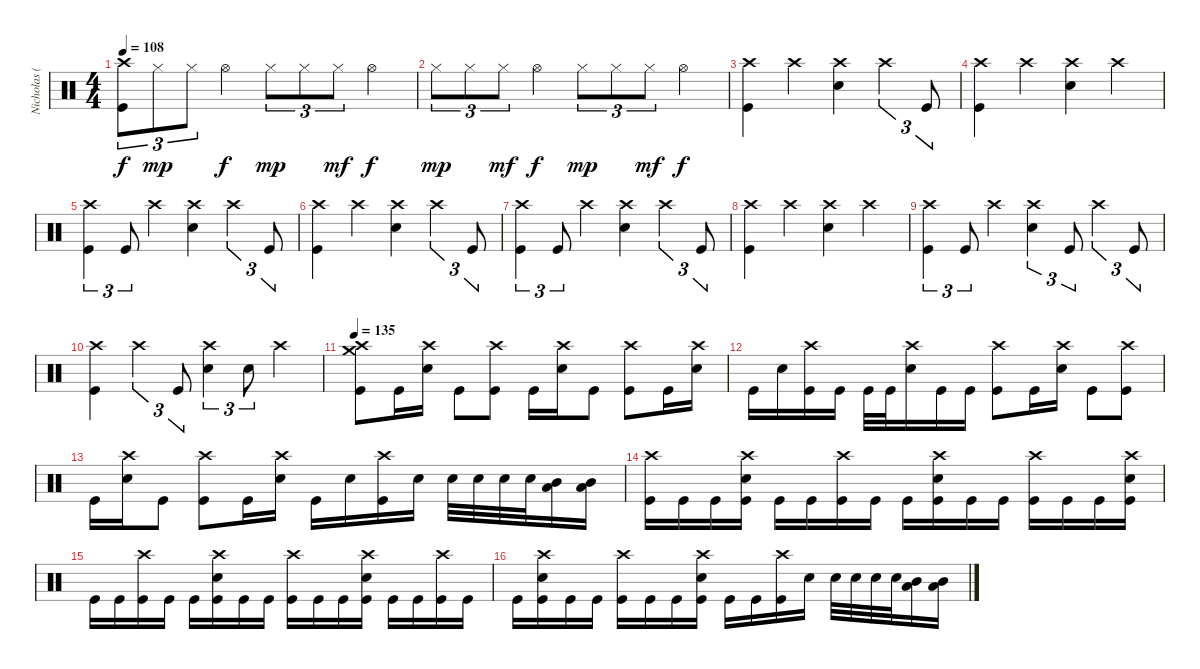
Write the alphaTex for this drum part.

\track ("Nicholas (Drums)" "Nicholas (") {instrument percussion}
\staff {score}
\articulation defaults
\ts (4 4)
\tempo 108
\clef neutral
\ks c
("Crash high (hit)" "Kick (hit)").8{tu (3 2) dy f} "Hi-Hat (closed)".8{tu (3 2) dy mp} "Hi-Hat (closed)".8{tu (3 2)} "Hi-Hat (open)".4{dy f} "Hi-Hat (closed)".8{tu (3 2) dy mp} "Hi-Hat (closed)".8{tu (3 2)} "Hi-Hat (closed)".8{tu (3 2) dy mf} "Hi-Hat (open)".4{dy f} |
"Hi-Hat (closed)".8{tu (3 2) dy mp} "Hi-Hat (closed)".8{tu (3 2)} "Hi-Hat (closed)".8{tu (3 2) dy mf} "Hi-Hat (open)".4{dy f} "Hi-Hat (closed)".8{tu (3 2) dy mp} "Hi-Hat (closed)".8{tu (3 2)} "Hi-Hat (closed)".8{tu (3 2) dy mf} "Hi-Hat (open)".4{dy f} |
("Crash high (hit)" "Kick (hit)").4 "Crash high (hit)".4 ("Crash high (hit)" "Electric Snare (hit)").4 "Crash high (hit)".4{tu (3 2)} "Kick (hit)".8{tu (3 2)} |
("Crash high (hit)" "Kick (hit)").4 "Crash high (hit)".4 ("Crash high (hit)" "Electric Snare (hit)").4 "Crash high (hit)".4 |
("Crash high (hit)" "Kick (hit)").4{tu (3 2)} "Kick (hit)".8{tu (3 2)} "Crash high (hit)".4 ("Crash high (hit)" "Electric Snare (hit)").4 "Crash high (hit)".4{tu (3 2)} "Kick (hit)".8{tu (3 2)} |
("Crash high (hit)" "Kick (hit)").4 "Crash high (hit)".4 ("Crash high (hit)" "Electric Snare (hit)").4 "Crash high (hit)".4{tu (3 2)} "Kick (hit)".8{tu (3 2)} |
("Crash high (hit)" "Kick (hit)").4{tu (3 2)} "Kick (hit)".8{tu (3 2)} "Crash high (hit)".4 ("Crash high (hit)" "Electric Snare (hit)").4 "Crash high (hit)".4{tu (3 2)} "Kick (hit)".8{tu (3 2)} |
("Crash high (hit)" "Kick (hit)").4 "Crash high (hit)".4 ("Crash high (hit)" "Electric Snare (hit)").4 "Crash high (hit)".4 |
("Crash high (hit)" "Kick (hit)").4{tu (3 2)} "Kick (hit)".8{tu (3 2)} "Crash high (hit)".4 ("Crash high (hit)" "Electric Snare (hit)").4{tu (3 2)} "Kick (hit)".8{tu (3 2)} "Crash high (hit)".4{tu (3 2)} "Kick (hit)".8{tu (3 2)} |
("Crash high (hit)" "Kick (hit)").4 "Crash high (hit)".4{tu (3 2)} "Kick (hit)".8{tu (3 2)} ("Crash high (hit)" "Electric Snare (hit)").4{tu (3 2)} "Electric Snare (hit)".8{tu (3 2)} "Crash high (hit)".4 |
\tempo 135
("Crash medium (hit)" "Crash high (hit)" "Kick (hit)").8 "Kick (hit)".16 ("Crash high (hit)" "Electric Snare (hit)").16 "Kick (hit)".8 ("Crash high (hit)" "Kick (hit)").8 "Kick (hit)".16 ("Crash high (hit)" "Electric Snare (hit)").16 "Kick (hit)".8 ("Crash high (hit)" "Kick (hit)").8 "Kick (hit)".16 ("Crash high (hit)" "Electric Snare (hit)").16 |
"Kick (hit)".16 "Electric Snare (hit)".16 ("Crash high (hit)" "Kick (hit)").16 "Kick (hit)".16 "Kick (hit)".32 "Kick (hit)".32 ("Crash high (hit)" "Electric Snare (hit)").16 "Kick (hit)".16 "Kick (hit)".16 ("Crash high (hit)" "Kick (hit)").8 "Kick (hit)".16 ("Crash high (hit)" "Electric Snare (hit)").16 "Kick (hit)".8 ("Crash high (hit)" "Kick (hit)").8 |
"Kick (hit)".16 ("Crash high (hit)" "Electric Snare (hit)").16 "Kick (hit)".8 ("Crash high (hit)" "Kick (hit)").8 "Kick (hit)".16 ("Crash high (hit)" "Electric Snare (hit)").16 "Kick (hit)".16 "Electric Snare (hit)".16 ("Crash high (hit)" "Kick (hit)").16 "Electric Snare (hit)".16 "Electric Snare (hit)".32 "Electric Snare (hit)".32 "Electric Snare (hit)".32 "Electric Snare (hit)".32 ("Mid Tom (hit)" "Low Tom (hit)").16 ("Mid Tom (hit)" "Low Tom (hit)").16 |
("Crash high (hit)" "Kick (hit)").16 "Kick (hit)".16 "Kick (hit)".16 ("Crash high (hit)" "Electric Snare (hit)" "Kick (hit)").16 "Kick (hit)".16 "Kick (hit)".16 ("Crash high (hit)" "Kick (hit)").16 "Kick (hit)".16 "Kick (hit)".16 ("Crash high (hit)" "Electric Snare (hit)" "Kick (hit)").16 "Kick (hit)".16 "Kick (hit)".16 ("Crash high (hit)" "Kick (hit)").16 "Kick (hit)".16 "Kick (hit)".16 ("Crash high (hit)" "Electric Snare (hit)" "Kick (hit)").16 |
"Kick (hit)".16 "Kick (hit)".16 ("Crash high (hit)" "Kick (hit)").16 "Kick (hit)".16 "Kick (hit)".16 ("Crash high (hit)" "Electric Snare (hit)" "Kick (hit)").16 "Kick (hit)".16 "Kick (hit)".16 ("Crash high (hit)" "Kick (hit)").16 "Kick (hit)".16 "Kick (hit)".16 ("Crash high (hit)" "Electric Snare (hit)" "Kick (hit)").16 "Kick (hit)".16 "Kick (hit)".16 ("Crash high (hit)" "Kick (hit)").16 "Kick (hit)".16 |
"Kick (hit)".16 ("Crash high (hit)" "Electric Snare (hit)" "Kick (hit)").16 "Kick (hit)".16 "Kick (hit)".16 ("Crash high (hit)" "Kick (hit)").16 "Kick (hit)".16 "Kick (hit)".16 ("Crash high (hit)" "Electric Snare (hit)" "Kick (hit)").16 "Kick (hit)".16 "Kick (hit)".16 ("Crash high (hit)" "Kick (hit)").16 "Electric Snare (hit)".16 "Electric Snare (hit)".32 "Electric Snare (hit)".32 "Electric Snare (hit)".32 "Electric Snare (hit)".32 ("Mid Tom (hit)" "Low Tom (hit)").16 ("Mid Tom (hit)" "Low Tom (hit)").16
